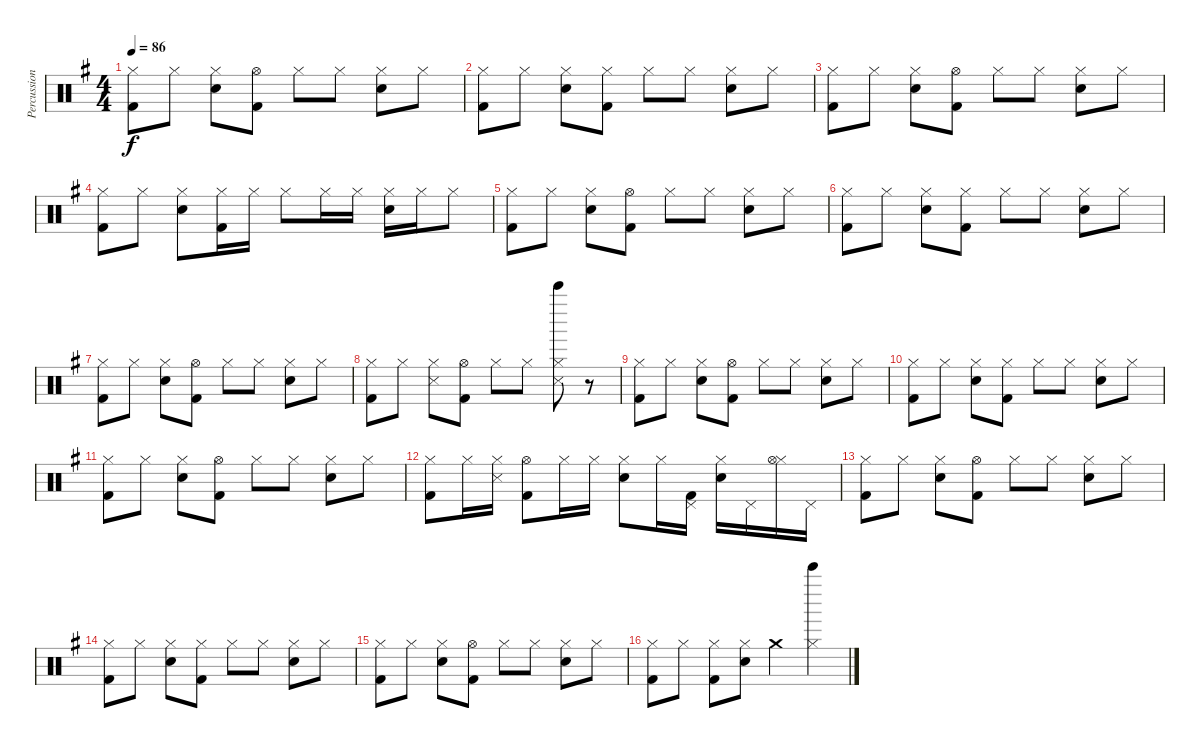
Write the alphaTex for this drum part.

\track ("Percussion" "Percussion") {instrument percussion}
\staff {score}
\articulation defaults
\ts (4 4)
\tempo 86
\clef neutral
\ks g
("Hi-Hat (closed)" "Kick (hit) 2").8{dy f} "Hi-Hat (closed)".8 ("Hi-Hat (closed)" "Hand Clap (hit)").8 ("Hi-Hat (open)" "Kick (hit) 2").8 "Hi-Hat (closed)".8 "Hi-Hat (closed)".8 ("Hi-Hat (closed)" "Hand Clap (hit)").8 "Hi-Hat (closed)".8 |
("Hi-Hat (closed)" "Kick (hit) 2").8 "Hi-Hat (closed)".8 ("Hi-Hat (closed)" "Hand Clap (hit)").8 ("Hi-Hat (closed)" "Kick (hit) 2").8 "Hi-Hat (closed)".8 "Hi-Hat (closed)".8 ("Hi-Hat (closed)" "Hand Clap (hit)").8 "Hi-Hat (closed)".8 |
("Hi-Hat (closed)" "Kick (hit) 2").8 "Hi-Hat (closed)".8 ("Hi-Hat (closed)" "Hand Clap (hit)").8 ("Hi-Hat (open)" "Kick (hit) 2").8 "Hi-Hat (closed)".8 "Hi-Hat (closed)".8 ("Hi-Hat (closed)" "Hand Clap (hit)").8 "Hi-Hat (closed)".8 |
("Hi-Hat (closed)" "Kick (hit) 2").8 "Hi-Hat (closed)".8 ("Hi-Hat (closed)" "Hand Clap (hit)").8 ("Hi-Hat (closed)" "Kick (hit) 2").16 "Hi-Hat (closed)".16 "Hi-Hat (closed)".8 "Hi-Hat (closed)".16 "Hi-Hat (closed)".16 ("Hi-Hat (closed)" "Hand Clap (hit)").16 "Hi-Hat (closed)".16 "Hi-Hat (closed)".8 |
("Hi-Hat (closed)" "Kick (hit) 2").8 "Hi-Hat (closed)".8 ("Hi-Hat (closed)" "Hand Clap (hit)").8 ("Hi-Hat (open)" "Kick (hit) 2").8 "Hi-Hat (closed)".8 "Hi-Hat (closed)".8 ("Hi-Hat (closed)" "Hand Clap (hit)").8 "Hi-Hat (closed)".8 |
("Hi-Hat (closed)" "Kick (hit) 2").8 "Hi-Hat (closed)".8 ("Hi-Hat (closed)" "Hand Clap (hit)").8 ("Hi-Hat (closed)" "Kick (hit) 2").8 "Hi-Hat (closed)".8 "Hi-Hat (closed)".8 ("Hi-Hat (closed)" "Hand Clap (hit)").8 "Hi-Hat (closed)".8 |
("Hi-Hat (closed)" "Kick (hit) 2").8 "Hi-Hat (closed)".8 ("Hi-Hat (closed)" "Hand Clap (hit)").8 ("Hi-Hat (open)" "Kick (hit) 2").8 "Hi-Hat (closed)".8 "Hi-Hat (closed)".8 ("Hi-Hat (closed)" "Hand Clap (hit)").8 "Hi-Hat (closed)".8 |
("Hi-Hat (closed)" "Kick (hit) 2").8 "Hi-Hat (closed)".8 ("Hi-Hat (closed)" "Snare (side stick) 3").8 ("Hi-Hat (open)" "Kick (hit) 2").8 "Hi-Hat (closed)".8 "Hi-Hat (closed)".8 ("Hi-Hat (closed)" "Bell Tree (hit)" "Snare (side stick) 3").8 r.8 |
("Hi-Hat (closed)" "Kick (hit) 2").8 "Hi-Hat (closed)".8 ("Hi-Hat (closed)" "Hand Clap (hit)").8 ("Hi-Hat (open)" "Kick (hit) 2").8 "Hi-Hat (closed)".8 "Hi-Hat (closed)".8 ("Hi-Hat (closed)" "Hand Clap (hit)").8 "Hi-Hat (closed)".8 |
("Hi-Hat (closed)" "Kick (hit) 2").8 "Hi-Hat (closed)".8 ("Hi-Hat (closed)" "Hand Clap (hit)").8 ("Hi-Hat (closed)" "Kick (hit) 2").8 "Hi-Hat (closed)".8 "Hi-Hat (closed)".8 ("Hi-Hat (closed)" "Hand Clap (hit)").8 "Hi-Hat (closed)".8 |
("Hi-Hat (closed)" "Kick (hit) 2").8 "Hi-Hat (closed)".8 ("Hi-Hat (closed)" "Hand Clap (hit)").8 ("Hi-Hat (open)" "Kick (hit) 2").8 "Hi-Hat (closed)".8 "Hi-Hat (closed)".8 ("Hi-Hat (closed)" "Hand Clap (hit)").8 "Hi-Hat (closed)".8 |
("Hi-Hat (closed)" "Kick (hit) 2").8 "Hi-Hat (closed)".16 ("Hi-Hat (closed)" "Snare (side stick) 3").16 ("Hi-Hat (open)" "Kick (hit) 2").8 "Hi-Hat (closed)".16 "Hi-Hat (closed)".16 ("Hi-Hat (closed)" "Hand Clap (hit)").8 "Hi-Hat (closed)".16 ("Pedal Hi-Hat (hit)" "Kick (hit) 2").16 ("Hi-Hat (closed)" "Hand Clap (hit)").16 "Pedal Hi-Hat (hit)".16 ("Hi-Hat (closed)" "Hi-Hat (open)").16 "Pedal Hi-Hat (hit)".16 |
("Hi-Hat (closed)" "Kick (hit) 2").8 "Hi-Hat (closed)".8 ("Hi-Hat (closed)" "Hand Clap (hit)").8 ("Hi-Hat (open)" "Kick (hit) 2").8 "Hi-Hat (closed)".8 "Hi-Hat (closed)".8 ("Hi-Hat (closed)" "Hand Clap (hit)").8 "Hi-Hat (closed)".8 |
("Hi-Hat (closed)" "Kick (hit) 2").8 "Hi-Hat (closed)".8 ("Hi-Hat (closed)" "Hand Clap (hit)").8 ("Hi-Hat (closed)" "Kick (hit) 2").8 "Hi-Hat (closed)".8 "Hi-Hat (closed)".8 ("Hi-Hat (closed)" "Hand Clap (hit)").8 "Hi-Hat (closed)".8 |
("Hi-Hat (closed)" "Kick (hit) 2").8 "Hi-Hat (closed)".8 ("Hi-Hat (closed)" "Hand Clap (hit)").8 ("Hi-Hat (open)" "Kick (hit) 2").8 "Hi-Hat (closed)".8 "Hi-Hat (closed)".8 ("Hi-Hat (closed)" "Hand Clap (hit)").8 "Hi-Hat (closed)".8 |
("Hi-Hat (closed)" "Kick (hit) 2").8 "Hi-Hat (closed)".8 ("Hi-Hat (closed)" "Kick (hit) 2").8 ("Hi-Hat (closed)" "Hand Clap (hit)").8 "Crash medium (hit)".4 ("Bell Tree (hit)" "Hi-Hat (closed)").4
